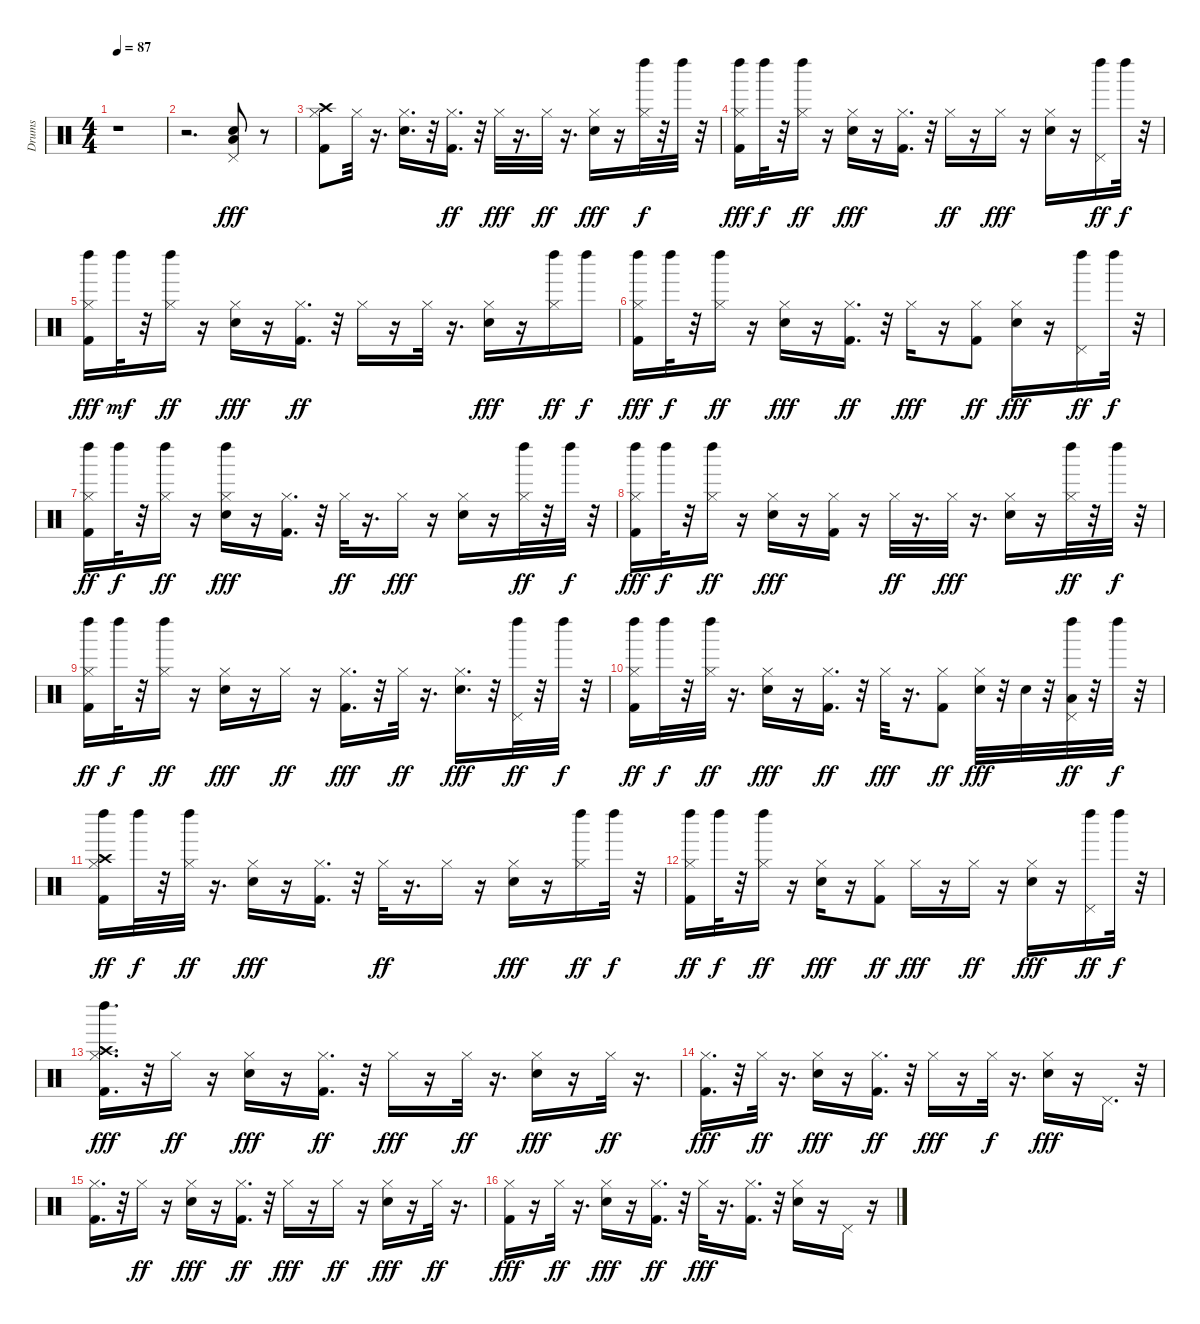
\track ("Drums   " "Drums   ") {instrument percussion}
\staff {score}
\articulation defaults
\ts (4 4)
\tempo 87
\clef neutral
\ks c
r.1{dy mf} |
r.2{d} ("Pedal Hi-Hat (hit)" "Snare (hit) 2" "Low Floor Tom (hit)").8{dy fff} r.8 |
("Kick (hit) 2" "Hi-Hat (closed)" "Crash high (hit)").8 "Hi-Hat (closed)".32 r.16{d} ("Hi-Hat (closed)" "Snare (hit) 2").16{d} r.32 ("Kick (hit) 2" "Hi-Hat (closed)").16{d dy ff} r.32 "Hi-Hat (closed)".32{dy fff} r.16{d} "Hi-Hat (closed)".32{dy ff} r.16{d} ("Hi-Hat (closed)" "Snare (hit) 2").16{dy fff} r.16 ("Hi-Hat (closed)" "Left Maraca (hit)").32{dy f} r.32 "Left Maraca (hit)".32 r.32 |
("Kick (hit) 2" "Hi-Hat (closed)" "Left Maraca (hit)").16{dy fff} "Left Maraca (hit)".32{dy f} r.32 ("Hi-Hat (closed)" "Left Maraca (hit)").16{dy ff} r.16 ("Hi-Hat (closed)" "Snare (hit) 2").16{dy fff} r.16 ("Kick (hit) 2" "Hi-Hat (closed)").16{d} r.32 "Hi-Hat (closed)".16{dy ff} r.16 "Hi-Hat (closed)".16{dy fff} r.16 ("Hi-Hat (closed)" "Snare (hit) 2").16 r.16 ("Pedal Hi-Hat (hit)" "Left Maraca (hit)").16{dy ff} "Left Maraca (hit)".32{dy f} r.32 |
("Kick (hit) 2" "Hi-Hat (closed)" "Left Maraca (hit)").16{dy fff} "Left Maraca (hit)".32{dy mf} r.32 ("Hi-Hat (closed)" "Left Maraca (hit)").16{dy ff} r.16 ("Hi-Hat (closed)" "Snare (hit) 2").16{dy fff} r.16 ("Kick (hit) 2" "Hi-Hat (closed)").16{d dy ff} r.32 "Hi-Hat (closed)".16 r.16 "Hi-Hat (closed)".32 r.16{d} ("Hi-Hat (closed)" "Snare (hit) 2").16{dy fff} r.16 ("Hi-Hat (closed)" "Left Maraca (hit)").16{dy ff} "Left Maraca (hit)".16{dy f} |
("Kick (hit) 2" "Hi-Hat (closed)" "Left Maraca (hit)").16{dy fff} "Left Maraca (hit)".32{dy f} r.32 ("Hi-Hat (closed)" "Left Maraca (hit)").16{dy ff} r.16 ("Hi-Hat (closed)" "Snare (hit) 2").16{dy fff} r.16 ("Kick (hit) 2" "Hi-Hat (closed)").16{d dy ff} r.32 "Hi-Hat (closed)".16{dy fff} r.16 ("Kick (hit) 2" "Hi-Hat (closed)").8{dy ff} ("Hi-Hat (closed)" "Snare (hit) 2").16{dy fff} r.16 ("Pedal Hi-Hat (hit)" "Left Maraca (hit)").16{dy ff} "Left Maraca (hit)".32{dy f} r.32 |
("Kick (hit) 2" "Hi-Hat (closed)" "Left Maraca (hit)").16{dy ff} "Left Maraca (hit)".32{dy f} r.32 ("Hi-Hat (closed)" "Left Maraca (hit)").16{dy ff} r.16 ("Hi-Hat (closed)" "Snare (hit) 2" "Left Maraca (hit)").16{dy fff} r.16 ("Kick (hit) 2" "Hi-Hat (closed)").16{d} r.32 "Hi-Hat (closed)".32{dy ff} r.16{d} "Hi-Hat (closed)".16{dy fff} r.16 ("Hi-Hat (closed)" "Snare (hit) 2").16 r.16 ("Hi-Hat (closed)" "Left Maraca (hit)").32{dy ff} r.32 "Left Maraca (hit)".32{dy f} r.32 |
("Kick (hit) 2" "Hi-Hat (closed)" "Left Maraca (hit)").16{dy fff} "Left Maraca (hit)".32{dy f} r.32 ("Hi-Hat (closed)" "Left Maraca (hit)").16{dy ff} r.16 ("Hi-Hat (closed)" "Snare (hit) 2").16{dy fff} r.16 ("Kick (hit) 2" "Hi-Hat (closed)").16 r.16 "Hi-Hat (closed)".32{dy ff} r.16{d} "Hi-Hat (closed)".32{dy fff} r.16{d} ("Hi-Hat (closed)" "Snare (hit) 2").16 r.16 ("Hi-Hat (closed)" "Left Maraca (hit)").32{dy ff} r.32 "Left Maraca (hit)".32{dy f} r.32 |
("Kick (hit) 2" "Hi-Hat (closed)" "Left Maraca (hit)").16{dy ff} "Left Maraca (hit)".32{dy f} r.32 ("Hi-Hat (closed)" "Left Maraca (hit)").16{dy ff} r.16 ("Hi-Hat (closed)" "Snare (hit) 2").16{dy fff} r.16 "Hi-Hat (closed)".16{dy ff} r.16 ("Kick (hit) 2" "Hi-Hat (closed)").16{d dy fff} r.32 "Hi-Hat (closed)".32{dy ff} r.16{d} ("Hi-Hat (closed)" "Snare (hit) 2").16{d dy fff} r.32 ("Pedal Hi-Hat (hit)" "Left Maraca (hit)").32{dy ff} r.32 "Left Maraca (hit)".32{dy f} r.32 |
("Kick (hit) 2" "Hi-Hat (closed)" "Left Maraca (hit)").16{dy ff} "Left Maraca (hit)".32{dy f} r.32 ("Hi-Hat (closed)" "Left Maraca (hit)").32{dy ff} r.16{d} ("Hi-Hat (closed)" "Snare (hit) 2").16{dy fff} r.16 ("Kick (hit) 2" "Hi-Hat (closed)").16{d dy ff} r.32 "Hi-Hat (closed)".32{dy fff} r.16{d} ("Kick (hit) 2" "Hi-Hat (closed)").8{dy ff} ("Hi-Hat (closed)" "Snare (hit) 2").32{dy fff} r.32 "Snare (hit) 2".32 r.32 ("Pedal Hi-Hat (hit)" "Low Floor Tom (hit)" "Left Maraca (hit)").32{dy ff} r.32 "Left Maraca (hit)".32{dy f} r.32 |
("Kick (hit) 2" "Hi-Hat (closed)" "Crash high (hit)" "Left Maraca (hit)").16{dy ff} "Left Maraca (hit)".32{dy f} r.32 ("Hi-Hat (closed)" "Left Maraca (hit)").32{dy ff} r.16{d} ("Hi-Hat (closed)" "Snare (hit) 2").16{dy fff} r.16 ("Kick (hit) 2" "Hi-Hat (closed)").16{d} r.32 "Hi-Hat (closed)".32{dy ff} r.16{d} "Hi-Hat (closed)".16 r.16 ("Hi-Hat (closed)" "Snare (hit) 2").16{dy fff} r.16 ("Hi-Hat (closed)" "Left Maraca (hit)").16{dy ff} "Left Maraca (hit)".32{dy f} r.32 |
("Kick (hit) 2" "Hi-Hat (closed)" "Left Maraca (hit)").16{dy ff} "Left Maraca (hit)".32{dy f} r.32 ("Hi-Hat (closed)" "Left Maraca (hit)").16{dy ff} r.16 ("Hi-Hat (closed)" "Snare (hit) 2").16{dy fff} r.16 ("Kick (hit) 2" "Hi-Hat (closed)").8{dy ff} "Hi-Hat (closed)".16{dy fff} r.16 "Hi-Hat (closed)".16{dy ff} r.16 ("Hi-Hat (closed)" "Snare (hit) 2").16{dy fff} r.16 ("Pedal Hi-Hat (hit)" "Left Maraca (hit)").16{dy ff} "Left Maraca (hit)".32{dy f} r.32 |
("Kick (hit) 2" "Hi-Hat (closed)" "Crash high (hit)" "Left Maraca (hit)").16{d dy fff} r.32 "Hi-Hat (closed)".16{dy ff} r.16 ("Hi-Hat (closed)" "Snare (hit) 2").16{dy fff} r.16 ("Kick (hit) 2" "Hi-Hat (closed)").16{d dy ff} r.32 "Hi-Hat (closed)".16{dy fff} r.16 "Hi-Hat (closed)".32{dy ff} r.16{d} ("Hi-Hat (closed)" "Snare (hit) 2").16{dy fff} r.16 "Hi-Hat (closed)".32{dy ff} r.16{d} |
("Kick (hit) 2" "Hi-Hat (closed)").16{d dy fff} r.32 "Hi-Hat (closed)".32{dy ff} r.16{d} ("Hi-Hat (closed)" "Snare (hit) 2").16{dy fff} r.16 ("Kick (hit) 2" "Hi-Hat (closed)").16{d dy ff} r.32 "Hi-Hat (closed)".16{dy fff} r.16 "Hi-Hat (closed)".32{dy f} r.16{d} ("Hi-Hat (closed)" "Snare (hit) 2").16{dy fff} r.16 "Pedal Hi-Hat (hit)".16{d} r.32 |
("Kick (hit) 2" "Hi-Hat (closed)").16{d} r.32 "Hi-Hat (closed)".16{dy ff} r.16 ("Hi-Hat (closed)" "Snare (hit) 2").16{dy fff} r.16 ("Kick (hit) 2" "Hi-Hat (closed)").16{d dy ff} r.32 "Hi-Hat (closed)".16{dy fff} r.16 "Hi-Hat (closed)".16{dy ff} r.16 ("Hi-Hat (closed)" "Snare (hit) 2").16{dy fff} r.16 "Hi-Hat (closed)".32{dy ff} r.16{d} |
("Kick (hit) 2" "Hi-Hat (closed)").16{dy fff} r.16 "Hi-Hat (closed)".32{dy ff} r.16{d} ("Hi-Hat (closed)" "Snare (hit) 2").16{dy fff} r.16 ("Kick (hit) 2" "Hi-Hat (closed)").16{d dy ff} r.32 "Hi-Hat (closed)".32{dy fff} r.16{d} ("Kick (hit) 2" "Hi-Hat (closed)").16{d} r.32 ("Hi-Hat (closed)" "Snare (hit) 2").16 r.16 "Pedal Hi-Hat (hit)".16 r.16
